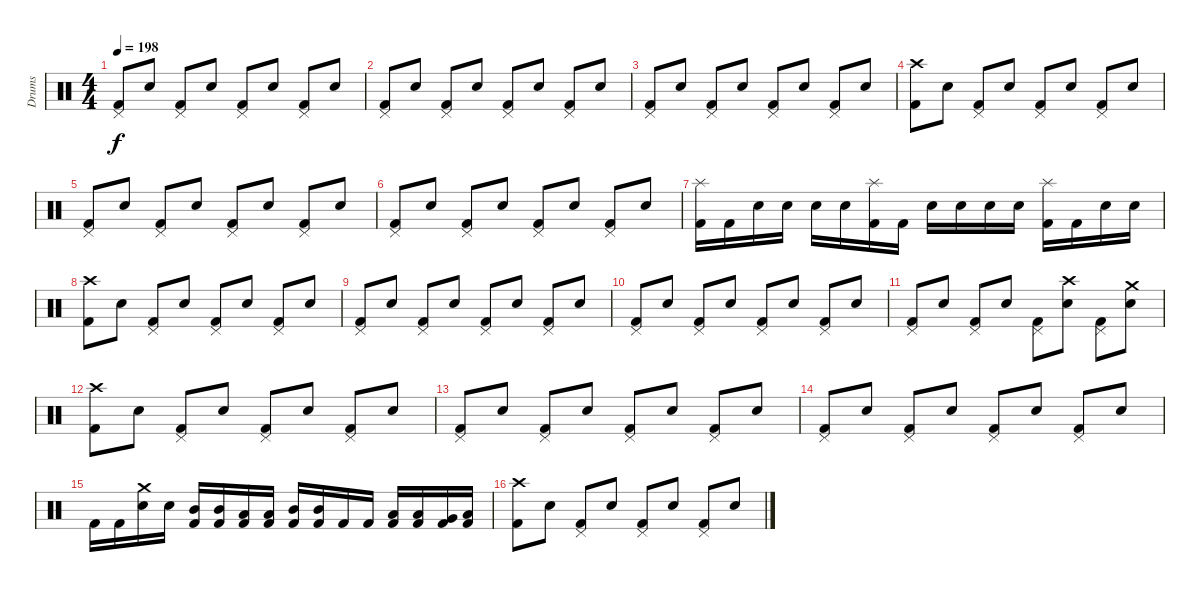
\track ("Drums" "Drums") {instrument percussion}
\staff {score}
\articulation defaults
\ts (4 4)
\tempo 198
\clef neutral
\ks c
("Pedal Hi-Hat (hit)" "Kick (hit) 2").8{dy f} "Electric Snare (hit)".8 ("Pedal Hi-Hat (hit)" "Kick (hit) 2").8 "Electric Snare (hit)".8 ("Pedal Hi-Hat (hit)" "Kick (hit) 2").8 "Electric Snare (hit)".8 ("Pedal Hi-Hat (hit)" "Kick (hit) 2").8 "Electric Snare (hit)".8 |
("Pedal Hi-Hat (hit)" "Kick (hit) 2").8 "Electric Snare (hit)".8 ("Pedal Hi-Hat (hit)" "Kick (hit) 2").8 "Electric Snare (hit)".8 ("Pedal Hi-Hat (hit)" "Kick (hit) 2").8 "Electric Snare (hit)".8 ("Pedal Hi-Hat (hit)" "Kick (hit) 2").8 "Electric Snare (hit)".8 |
("Pedal Hi-Hat (hit)" "Kick (hit) 2").8 "Electric Snare (hit)".8 ("Pedal Hi-Hat (hit)" "Kick (hit) 2").8 "Electric Snare (hit)".8 ("Pedal Hi-Hat (hit)" "Kick (hit) 2").8 "Electric Snare (hit)".8 ("Pedal Hi-Hat (hit)" "Kick (hit) 2").8 "Electric Snare (hit)".8 |
("Crash high (hit)" "Kick (hit) 2").8 "Electric Snare (hit)".8 ("Pedal Hi-Hat (hit)" "Kick (hit) 2").8 "Electric Snare (hit)".8 ("Pedal Hi-Hat (hit)" "Kick (hit) 2").8 "Electric Snare (hit)".8 ("Pedal Hi-Hat (hit)" "Kick (hit) 2").8 "Electric Snare (hit)".8 |
("Pedal Hi-Hat (hit)" "Kick (hit) 2").8 "Electric Snare (hit)".8 ("Pedal Hi-Hat (hit)" "Kick (hit) 2").8 "Electric Snare (hit)".8 ("Pedal Hi-Hat (hit)" "Kick (hit) 2").8 "Electric Snare (hit)".8 ("Pedal Hi-Hat (hit)" "Kick (hit) 2").8 "Electric Snare (hit)".8 |
("Pedal Hi-Hat (hit)" "Kick (hit) 2").8 "Electric Snare (hit)".8 ("Pedal Hi-Hat (hit)" "Kick (hit) 2").8 "Electric Snare (hit)".8 ("Pedal Hi-Hat (hit)" "Kick (hit) 2").8 "Electric Snare (hit)".8 ("Pedal Hi-Hat (hit)" "Kick (hit) 2").8 "Electric Snare (hit)".8 |
("Splash (hit)" "Kick (hit) 2").16 "Kick (hit) 2".16 "Electric Snare (hit)".16 "Electric Snare (hit)".16 "Electric Snare (hit)".16 "Electric Snare (hit)".16 ("Splash (hit)" "Kick (hit) 2").16 "Kick (hit) 2".16 "Electric Snare (hit)".16 "Electric Snare (hit)".16 "Electric Snare (hit)".16 "Electric Snare (hit)".16 ("Splash (hit)" "Kick (hit) 2").16 "Kick (hit) 2".16 "Electric Snare (hit)".16 "Electric Snare (hit)".16 |
("Crash high (hit)" "Kick (hit) 2").8 "Electric Snare (hit)".8 ("Pedal Hi-Hat (hit)" "Kick (hit) 2").8 "Electric Snare (hit)".8 ("Pedal Hi-Hat (hit)" "Kick (hit) 2").8 "Electric Snare (hit)".8 ("Pedal Hi-Hat (hit)" "Kick (hit) 2").8 "Electric Snare (hit)".8 |
("Pedal Hi-Hat (hit)" "Kick (hit) 2").8 "Electric Snare (hit)".8 ("Pedal Hi-Hat (hit)" "Kick (hit) 2").8 "Electric Snare (hit)".8 ("Pedal Hi-Hat (hit)" "Kick (hit) 2").8 "Electric Snare (hit)".8 ("Pedal Hi-Hat (hit)" "Kick (hit) 2").8 "Electric Snare (hit)".8 |
("Pedal Hi-Hat (hit)" "Kick (hit) 2").8 "Electric Snare (hit)".8 ("Pedal Hi-Hat (hit)" "Kick (hit) 2").8 "Electric Snare (hit)".8 ("Pedal Hi-Hat (hit)" "Kick (hit) 2").8 "Electric Snare (hit)".8 ("Pedal Hi-Hat (hit)" "Kick (hit) 2").8 "Electric Snare (hit)".8 |
("Pedal Hi-Hat (hit)" "Kick (hit) 2").8 "Electric Snare (hit)".8 ("Pedal Hi-Hat (hit)" "Kick (hit) 2").8 "Electric Snare (hit)".8 ("Pedal Hi-Hat (hit)" "Kick (hit) 2").8 ("Crash high (hit)" "Electric Snare (hit)").8 ("Pedal Hi-Hat (hit)" "Kick (hit) 2").8 ("Crash medium (hit)" "Electric Snare (hit)").8 |
("Crash high (hit)" "Kick (hit) 2").8 "Electric Snare (hit)".8 ("Pedal Hi-Hat (hit)" "Kick (hit) 2").8 "Electric Snare (hit)".8 ("Pedal Hi-Hat (hit)" "Kick (hit) 2").8 "Electric Snare (hit)".8 ("Pedal Hi-Hat (hit)" "Kick (hit) 2").8 "Electric Snare (hit)".8 |
("Pedal Hi-Hat (hit)" "Kick (hit) 2").8 "Electric Snare (hit)".8 ("Pedal Hi-Hat (hit)" "Kick (hit) 2").8 "Electric Snare (hit)".8 ("Pedal Hi-Hat (hit)" "Kick (hit) 2").8 "Electric Snare (hit)".8 ("Pedal Hi-Hat (hit)" "Kick (hit) 2").8 "Electric Snare (hit)".8 |
("Pedal Hi-Hat (hit)" "Kick (hit) 2").8 "Electric Snare (hit)".8 ("Pedal Hi-Hat (hit)" "Kick (hit) 2").8 "Electric Snare (hit)".8 ("Pedal Hi-Hat (hit)" "Kick (hit) 2").8 "Electric Snare (hit)".8 ("Pedal Hi-Hat (hit)" "Kick (hit) 2").8 "Electric Snare (hit)".8 |
"Kick (hit) 2".16 "Kick (hit) 2".16 ("Crash medium (hit)" "Electric Snare (hit)").16 "Electric Snare (hit)".16 ("Mid Tom (hit)" "Kick (hit) 2").16 ("Mid Tom (hit)" "Kick (hit) 2").16 ("Low Tom (hit)" "Kick (hit) 2").16 ("Low Tom (hit)" "Kick (hit) 2").16 ("Mid Tom (hit)" "Kick (hit) 2").16 ("Mid Tom (hit)" "Kick (hit) 2").16 "Kick (hit) 2".16 "Kick (hit) 2".16 ("Low Tom (hit)" "Kick (hit) 2").16 ("Low Tom (hit)" "Kick (hit) 2").16 ("Very Low Tom (hit)" "Kick (hit) 2").16 ("Low Floor Tom (hit)" "Kick (hit) 2").16 |
("Crash high (hit)" "Kick (hit) 2").8 "Electric Snare (hit)".8 ("Pedal Hi-Hat (hit)" "Kick (hit) 2").8 "Electric Snare (hit)".8 ("Pedal Hi-Hat (hit)" "Kick (hit) 2").8 "Electric Snare (hit)".8 ("Pedal Hi-Hat (hit)" "Kick (hit) 2").8 "Electric Snare (hit)".8
